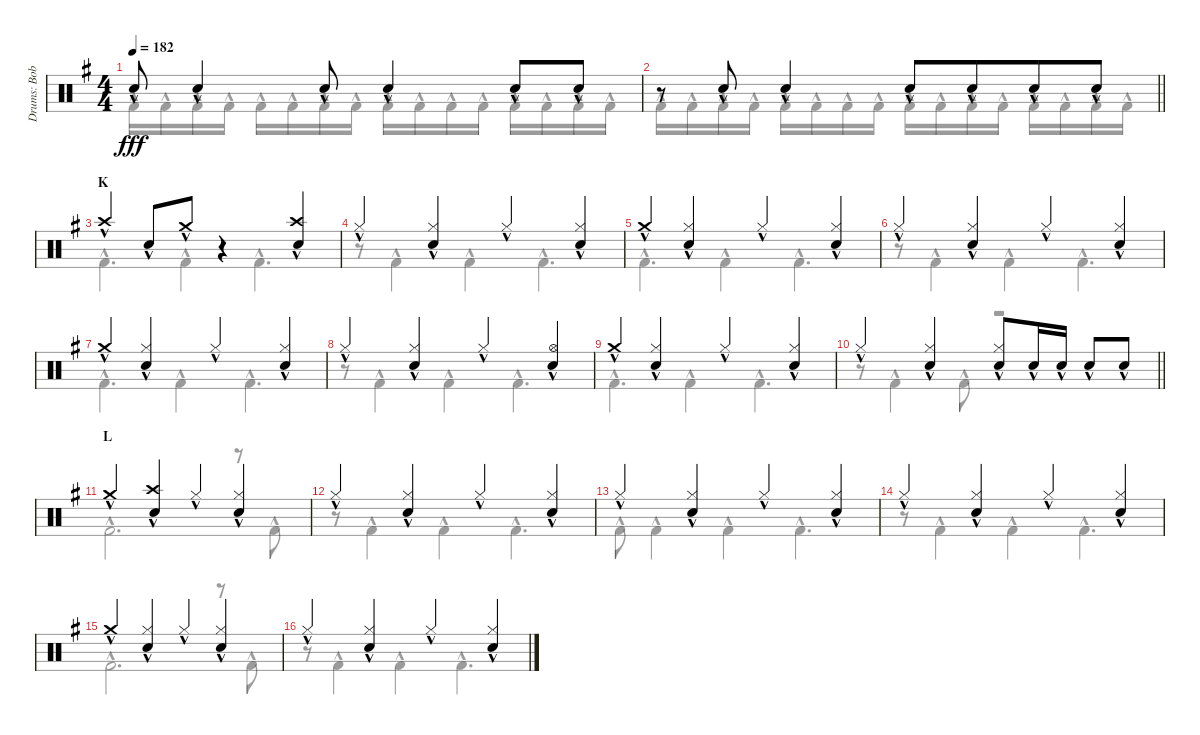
\track ("Drums: Bobby" "Drums: Bob") {instrument percussion}
\staff {score}
\articulation defaults
\voice
\ts (4 4)
\tempo 182
\clef neutral
\ks g "Snare (hit) 2"{hac}.8{dy fff} "Snare (hit) 2"{hac}.4 "Snare (hit) 2"{hac}.8 "Snare (hit) 2"{hac}.4 "Electric Snare (hit)"{hac}.8 "Electric Snare (hit)"{hac}.8
|
\barLineRight lightlight
r.8 "Electric Snare (hit)"{hac}.8 "Snare (hit) 2"{hac}.4 "Electric Snare (hit)"{hac}.8 "Electric Snare (hit)"{hac}.8{beam merge} "Electric Snare (hit)"{hac}.8 "Electric Snare (hit)"{hac}.8 |
\section ("" "K")
"Crash high (hit)"{hac}.4 "Snare (hit) 2"{hac}.8 "Crash medium (hit)"{hac}.8 r.4 ("Crash high (hit)"{hac} "Snare (hit) 2"{hac}).4 |
"Hi-Hat (closed)"{hac}.4 ("Hi-Hat (closed)"{hac} "Snare (hit) 2"{hac}).4 "Hi-Hat (closed)"{hac}.4 ("Hi-Hat (closed)"{hac} "Snare (hit) 2"{hac}).4 |
"Crash medium (hit)"{hac}.4 ("Hi-Hat (closed)"{hac} "Snare (hit) 2"{hac}).4 "Hi-Hat (closed)"{hac}.4 ("Hi-Hat (closed)"{hac} "Snare (hit) 2"{hac}).4 |
"Hi-Hat (closed)"{hac}.4 ("Hi-Hat (closed)"{hac} "Snare (hit) 2"{hac}).4 "Hi-Hat (closed)"{hac}.4 ("Hi-Hat (closed)"{hac} "Snare (hit) 2"{hac}).4 |
"Crash medium (hit)"{hac}.4 ("Hi-Hat (closed)"{hac} "Snare (hit) 2"{hac}).4 "Hi-Hat (closed)"{hac}.4 ("Hi-Hat (closed)"{hac} "Snare (hit) 2"{hac}).4 |
"Hi-Hat (closed)"{hac}.4 ("Hi-Hat (closed)"{hac} "Snare (hit) 2"{hac}).4 "Hi-Hat (closed)"{hac}.4 ("Hi-Hat (open)"{hac} "Snare (hit) 2"{hac}).4 |
"Crash medium (hit)"{hac}.4 ("Hi-Hat (closed)"{hac} "Snare (hit) 2"{hac}).4 "Hi-Hat (closed)"{hac}.4 ("Hi-Hat (closed)"{hac} "Snare (hit) 2"{hac}).4 |
\barLineRight lightlight "Hi-Hat (closed)"{hac}.4
("Hi-Hat (closed)"{hac} "Electric Snare (hit)"{hac}).4 ("Hi-Hat (closed)"{hac} "Electric Snare (hit)"{hac}).8 "Electric Snare (hit)"{hac}.16 "Electric Snare (hit)"{hac}.16 "Snare (hit) 2"{hac}.8 "Snare (hit) 2"{hac}.8 |
\section ("" "L")
"Crash medium (hit)"{hac}.4 ("Crash high (hit)"{hac} "Snare (hit) 2"{hac}).4 "Hi-Hat (closed)"{hac}.4 ("Hi-Hat (closed)"{hac} "Snare (hit) 2"{hac}).4 |
"Hi-Hat (closed)"{hac}.4 ("Hi-Hat (closed)"{hac} "Snare (hit) 2"{hac}).4 "Hi-Hat (closed)"{hac}.4 ("Hi-Hat (closed)"{hac} "Snare (hit) 2"{hac}).4 |
"Hi-Hat (closed)"{hac}.4 ("Hi-Hat (closed)"{hac} "Snare (hit) 2"{hac}).4 "Hi-Hat (closed)"{hac}.4 ("Hi-Hat (closed)"{hac} "Snare (hit) 2"{hac}).4 |
"Hi-Hat (closed)"{hac}.4 ("Hi-Hat (closed)"{hac} "Snare (hit) 2"{hac}).4 "Hi-Hat (closed)"{hac}.4 ("Hi-Hat (closed)"{hac} "Snare (hit) 2"{hac}).4 |
"Crash medium (hit)"{hac}.4 ("Hi-Hat (closed)"{hac} "Snare (hit) 2"{hac}).4 "Hi-Hat (closed)"{hac}.4 ("Hi-Hat (closed)"{hac} "Snare (hit) 2"{hac}).4 |
"Hi-Hat (closed)"{hac}.4 ("Hi-Hat (closed)"{hac} "Snare (hit) 2"{hac}).4 "Hi-Hat (closed)"{hac}.4 ("Hi-Hat (closed)"{hac} "Snare (hit) 2"{hac}).4
\voice
\clef neutral
\ottava regular
\simile none
\ks g "Kick (hit) 2"{hac}.16{dy fff} "Kick (hit) 2"{hac}.16 "Kick (hit) 2"{hac}.16 "Kick (hit) 2"{hac}.16 "Kick (hit) 2"{hac}.16 "Kick (hit) 2"{hac}.16 "Kick (hit) 2"{hac}.16 "Kick (hit) 2"{hac}.16 "Kick (hit) 2"{hac}.16 "Kick (hit) 2"{hac}.16 "Kick (hit) 2"{hac}.16 "Kick (hit) 2"{hac}.16 "Kick (hit) 2"{hac}.16 "Kick (hit) 2"{hac}.16 "Kick (hit) 2"{hac}.16 "Kick (hit) 2"{hac}.16
|
\barLineRight lightlight "Kick (hit) 2"{hac}.16 "Kick (hit) 2"{hac}.16 "Kick (hit) 2"{hac}.16 "Kick (hit) 2"{hac}.16 "Kick (hit) 2"{hac}.16 "Kick (hit) 2"{hac}.16 "Kick (hit) 2"{hac}.16 "Kick (hit) 2"{hac}.16 "Kick (hit) 2"{hac}.16 "Kick (hit) 2"{hac}.16 "Kick (hit) 2"{hac}.16 "Kick (hit) 2"{hac}.16 "Kick (hit) 2"{hac}.16 "Kick (hit) 2"{hac}.16 "Kick (hit) 2"{hac}.16 "Kick (hit) 2"{hac}.16
|
"Kick (hit) 2"{hac}.4{d} "Kick (hit) 2"{hac}.4 "Kick (hit) 2"{hac}.4{d} |
r.8 "Kick (hit) 2"{hac}.4 "Kick (hit) 2"{hac}.4 "Kick (hit) 2"{hac}.4{d} |
"Kick (hit) 2"{hac}.4{d} "Kick (hit) 2"{hac}.4 "Kick (hit) 2"{hac}.4{d} |
r.8 "Kick (hit) 2"{hac}.4 "Kick (hit) 2"{hac}.4 "Kick (hit) 2"{hac}.4{d} |
"Kick (hit) 2"{hac}.4{d} "Kick (hit) 2"{hac}.4 "Kick (hit) 2"{hac}.4{d} |
r.8 "Kick (hit) 2"{hac}.4 "Kick (hit) 2"{hac}.4 "Kick (hit) 2"{hac}.4{d} |
"Kick (hit) 2"{hac}.4{d} "Kick (hit) 2"{hac}.4 "Kick (hit) 2"{hac}.4{d} |
\barLineRight lightlight
r.8 "Kick (hit) 2"{hac}.4 "Kick (hit) 2"{hac}.8 r.2 |
"Kick (hit) 2"{hac}.2{d} r.8 "Kick (hit) 2"{hac}.8 |
r.8 "Kick (hit) 2"{hac}.4 "Kick (hit) 2"{hac}.4 "Kick (hit) 2"{hac}.4{d} |
"Kick (hit) 2"{hac}.8 "Kick (hit) 2"{hac}.4 "Kick (hit) 2"{hac}.4 "Kick (hit) 2"{hac}.4{d} |
r.8 "Kick (hit) 2"{hac}.4 "Kick (hit) 2"{hac}.4 "Kick (hit) 2"{hac}.4{d} |
"Kick (hit) 2"{hac}.2{d} r.8 "Kick (hit) 2"{hac}.8 |
r.8 "Kick (hit) 2"{hac}.4 "Kick (hit) 2"{hac}.4 "Kick (hit) 2"{hac}.4{d}
